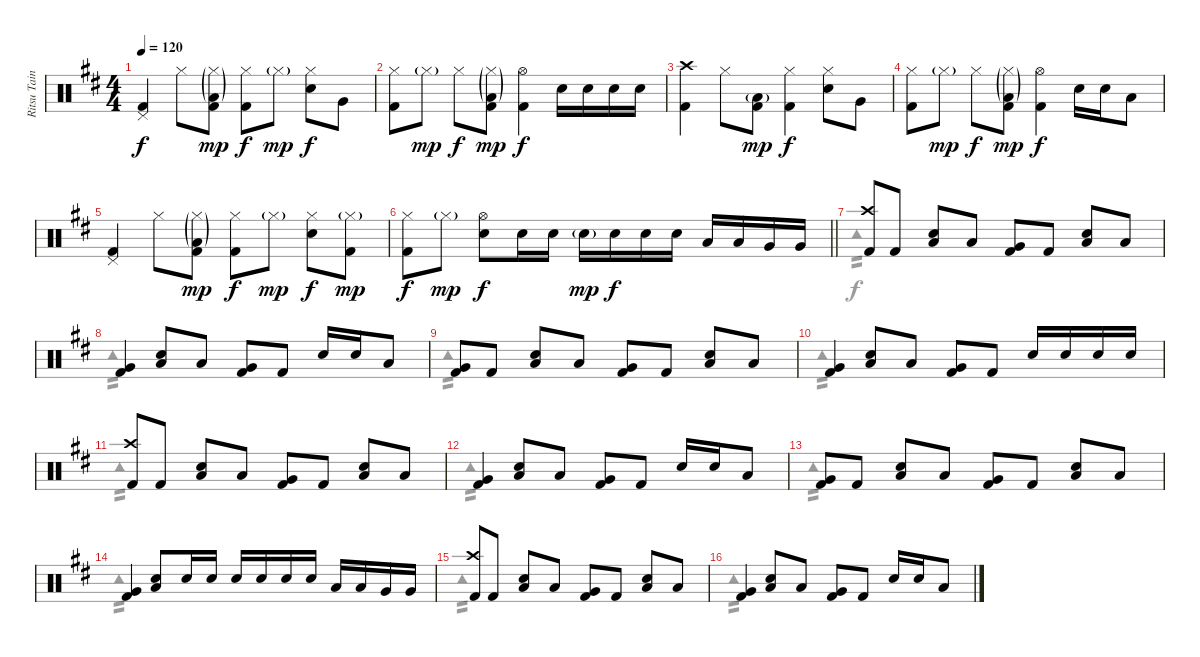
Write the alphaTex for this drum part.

\track ("Ritsu Tainaka" "Ritsu Tain") {instrument percussion}
\staff {score}
\articulation defaults
\voice
\ts (4 4)
\tempo 120
\clef neutral
\ks d
("Pedal Hi-Hat (hit)" "Kick (hit) 2").4{dy f} "Hi-Hat (closed)".8 ("Hi-Hat (closed)"{g} "Low Floor Tom (hit)"{g} "Kick (hit) 2").8{dy mp} ("Hi-Hat (closed)" "Kick (hit) 2").8{dy f} "Hi-Hat (closed)"{g}.8{dy mp} ("Hi-Hat (closed)" "Snare (hit) 2").8{dy f} "Very Low Tom (hit)".8 |
("Hi-Hat (closed)" "Kick (hit) 2").8 "Hi-Hat (closed)"{g}.8{dy mp} "Hi-Hat (closed)".8{dy f} ("Hi-Hat (closed)"{g} "Low Floor Tom (hit)"{g} "Kick (hit) 2").8{dy mp} ("Hi-Hat (open)" "Kick (hit) 2").4{dy f} "Snare (hit) 2".16 "Snare (hit) 2".16 "Snare (hit) 2".16 "Snare (hit) 2".16 |
("Crash high (hit)" "Kick (hit) 2").4 "Hi-Hat (closed)".8 ("Low Floor Tom (hit)"{g} "Kick (hit) 2").8{dy mp} ("Hi-Hat (closed)" "Kick (hit) 2").4{dy f} ("Hi-Hat (closed)" "Snare (hit) 2").8 "Very Low Tom (hit)".8 |
("Hi-Hat (closed)" "Kick (hit) 2").8 "Hi-Hat (closed)"{g}.8{dy mp} "Hi-Hat (closed)".8{dy f} ("Hi-Hat (closed)"{g} "Low Floor Tom (hit)"{g} "Kick (hit) 2").8{dy mp} ("Hi-Hat (open)" "Kick (hit) 2").4{dy f} "Snare (hit) 2".16 "Snare (hit) 2".16 "Low Tom (hit)".8 |
("Pedal Hi-Hat (hit)" "Kick (hit) 2").4 "Hi-Hat (closed)".8 ("Hi-Hat (closed)"{g} "Low Floor Tom (hit)"{g} "Kick (hit) 2").8{dy mp} ("Hi-Hat (closed)" "Kick (hit) 2").8{dy f} "Hi-Hat (closed)"{g}.8{dy mp} ("Hi-Hat (closed)" "Snare (hit) 2").8{dy f} ("Hi-Hat (closed)"{g} "Kick (hit) 2").8{dy mp} |
\barLineRight lightlight
("Hi-Hat (closed)" "Kick (hit) 2").8{dy f} "Hi-Hat (closed)"{g}.8{dy mp} ("Hi-Hat (open)" "Snare (hit) 2").8{dy f} "Snare (hit) 2".16 "Snare (hit) 2".16 "Snare (hit) 2"{g}.16{dy mp} "Snare (hit) 2".16{dy f} "Snare (hit) 2".16 "Snare (hit) 2".16 "Low Tom (hit)".16 "Low Tom (hit)".16 "Very Low Tom (hit)".16 "Very Low Tom (hit)".16 |
("Crash high (hit)" "Kick (hit) 2").8 "Kick (hit) 2".8 ("Snare (hit) 2" "Low Floor Tom (hit)").8 "Low Tom (hit)".8 ("Very Low Tom (hit)" "Kick (hit) 2").8 "Kick (hit) 2".8 ("Snare (hit) 2" "Low Floor Tom (hit)").8 "Low Tom (hit)".8 |
("Very Low Tom (hit)" "Kick (hit) 2").4 ("Snare (hit) 2" "Low Floor Tom (hit)").8 "Low Tom (hit)".8 ("Very Low Tom (hit)" "Kick (hit) 2").8 "Kick (hit) 2".8 "Snare (hit) 2".16 "Snare (hit) 2".16 "Low Tom (hit)".8 |
("Very Low Tom (hit)" "Kick (hit) 2").8 "Kick (hit) 2".8 ("Snare (hit) 2" "Low Floor Tom (hit)").8 "Low Tom (hit)".8 ("Very Low Tom (hit)" "Kick (hit) 2").8 "Kick (hit) 2".8 ("Snare (hit) 2" "Low Floor Tom (hit)").8 "Low Tom (hit)".8 |
("Very Low Tom (hit)" "Kick (hit) 2").4 ("Snare (hit) 2" "Low Floor Tom (hit)").8 "Low Tom (hit)".8 ("Very Low Tom (hit)" "Kick (hit) 2").8 "Kick (hit) 2".8 "Snare (hit) 2".16 "Snare (hit) 2".16 "Snare (hit) 2".16 "Snare (hit) 2".16 |
("Crash high (hit)" "Kick (hit) 2").8 "Kick (hit) 2".8 ("Snare (hit) 2" "Low Floor Tom (hit)").8 "Low Tom (hit)".8 ("Very Low Tom (hit)" "Kick (hit) 2").8 "Kick (hit) 2".8 ("Snare (hit) 2" "Low Floor Tom (hit)").8 "Low Tom (hit)".8 |
("Very Low Tom (hit)" "Kick (hit) 2").4 ("Snare (hit) 2" "Low Floor Tom (hit)").8 "Low Tom (hit)".8 ("Very Low Tom (hit)" "Kick (hit) 2").8 "Kick (hit) 2".8 "Snare (hit) 2".16 "Snare (hit) 2".16 "Low Tom (hit)".8 |
("Very Low Tom (hit)" "Kick (hit) 2").8 "Kick (hit) 2".8 ("Snare (hit) 2" "Low Floor Tom (hit)").8 "Low Tom (hit)".8 ("Very Low Tom (hit)" "Kick (hit) 2").8 "Kick (hit) 2".8 ("Snare (hit) 2" "Low Floor Tom (hit)").8 "Low Tom (hit)".8 |
("Very Low Tom (hit)" "Kick (hit) 2").4 ("Snare (hit) 2" "Low Floor Tom (hit)").8 "Snare (hit) 2".16 "Snare (hit) 2".16 "Snare (hit) 2".16 "Snare (hit) 2".16 "Snare (hit) 2".16 "Snare (hit) 2".16 "Low Tom (hit)".16 "Low Tom (hit)".16 "Very Low Tom (hit)".16 "Very Low Tom (hit)".16 |
("Crash high (hit)" "Kick (hit) 2").8 "Kick (hit) 2".8 ("Snare (hit) 2" "Low Floor Tom (hit)").8 "Low Tom (hit)".8 ("Very Low Tom (hit)" "Kick (hit) 2").8 "Kick (hit) 2".8 ("Snare (hit) 2" "Low Floor Tom (hit)").8 "Low Tom (hit)".8 |
("Very Low Tom (hit)" "Kick (hit) 2").4 ("Snare (hit) 2" "Low Floor Tom (hit)").8 "Low Tom (hit)".8 ("Very Low Tom (hit)" "Kick (hit) 2").8 "Kick (hit) 2".8 "Snare (hit) 2".16 "Snare (hit) 2".16 "Low Tom (hit)".8
\voice
\clef neutral
\ottava regular
\simile none
\ks d
|
|
|
|
|
\barLineRight lightlight
|
"Tambourine (hit)".1{tp 2} |
"Tambourine (hit)".1{tp 2} |
"Tambourine (hit)".1{tp 2} |
"Tambourine (hit)".1{tp 2} |
"Tambourine (hit)".1{tp 2} |
"Tambourine (hit)".1{tp 2} |
"Tambourine (hit)".1{tp 2} |
"Tambourine (hit)".1{tp 2} |
"Tambourine (hit)".1{tp 2} |
"Tambourine (hit)".1{tp 2}
